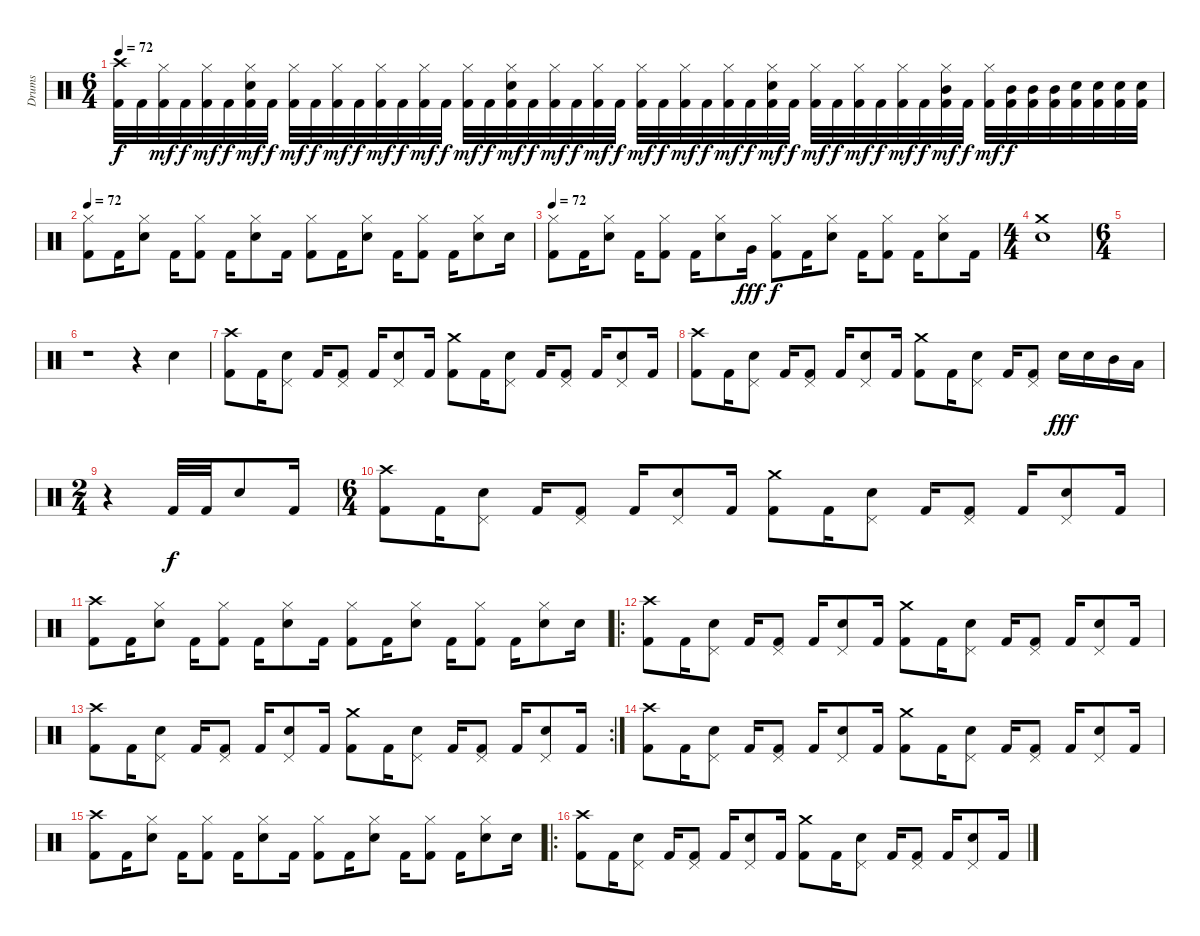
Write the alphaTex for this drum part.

\track ("Drums" "Drums") {instrument percussion}
\staff {score}
\articulation defaults
\ts (6 4)
\tempo 72
\clef neutral
\ks c
("Crash high (hit)" "Kick (hit) 2").32{dy f} "Kick (hit) 2".32 ("Hi-Hat (closed)" "Kick (hit) 2").32{dy mf} "Kick (hit) 2".32{dy f} ("Hi-Hat (closed)" "Kick (hit) 2").32{dy mf} "Kick (hit) 2".32{dy f} ("Hi-Hat (closed)" "Electric Snare (hit)" "Kick (hit) 2").32{dy mf} "Kick (hit) 2".32{dy f} ("Hi-Hat (closed)" "Kick (hit) 2").32{dy mf} "Kick (hit) 2".32{dy f} ("Hi-Hat (closed)" "Kick (hit) 2").32{dy mf} "Kick (hit) 2".32{dy f} ("Hi-Hat (closed)" "Kick (hit) 2").32{dy mf} "Kick (hit) 2".32{dy f} ("Hi-Hat (closed)" "Kick (hit) 2").32{dy mf} "Kick (hit) 2".32{dy f} ("Hi-Hat (closed)" "Kick (hit) 2").32{dy mf} "Kick (hit) 2".32{dy f} ("Hi-Hat (closed)" "Electric Snare (hit)" "Kick (hit) 2").32{dy mf} "Kick (hit) 2".32{dy f} ("Hi-Hat (closed)" "Kick (hit) 2").32{dy mf} "Kick (hit) 2".32{dy f} ("Hi-Hat (closed)" "Kick (hit) 2").32{dy mf} "Kick (hit) 2".32{dy f} ("Hi-Hat (closed)" "Kick (hit) 2").32{dy mf} "Kick (hit) 2".32{dy f} ("Hi-Hat (closed)" "Kick (hit) 2").32{dy mf} "Kick (hit) 2".32{dy f} ("Hi-Hat (closed)" "Kick (hit) 2").32{dy mf} "Kick (hit) 2".32{dy f} ("Hi-Hat (closed)" "Electric Snare (hit)" "Kick (hit) 2").32{dy mf} "Kick (hit) 2".32{dy f} ("Hi-Hat (closed)" "Kick (hit) 2").32{dy mf} "Kick (hit) 2".32{dy f} ("Hi-Hat (closed)" "Kick (hit) 2").32{dy mf} "Kick (hit) 2".32{dy f} ("Hi-Hat (closed)" "Kick (hit) 2").32{dy mf} "Kick (hit) 2".32{dy f} ("Hi-Hat (closed)" "Mid Tom (hit)" "Kick (hit) 2").32{dy mf} "Kick (hit) 2".32{dy f} ("Hi-Hat (closed)" "Kick (hit) 2").32{dy mf} ("Mid Tom (hit)" "Kick (hit) 2").32{dy f} ("Mid Tom (hit)" "Kick (hit) 2").32 ("Mid Tom (hit)" "Kick (hit) 2").32 ("Electric Snare (hit)" "Kick (hit) 2").32 ("Electric Snare (hit)" "Kick (hit) 2").32 ("Electric Snare (hit)" "Kick (hit) 2").32 ("Electric Snare (hit)" "Kick (hit) 2").32 |
\tempo 72
("Hi-Hat (closed)" "Kick (hit) 2").8 "Kick (hit) 2".16 ("Hi-Hat (closed)" "Electric Snare (hit)").8 "Kick (hit) 2".16 ("Hi-Hat (closed)" "Kick (hit) 2").8 "Kick (hit) 2".16 ("Hi-Hat (closed)" "Electric Snare (hit)").8 "Kick (hit) 2".16 ("Hi-Hat (closed)" "Kick (hit) 2").8 "Kick (hit) 2".16 ("Hi-Hat (closed)" "Electric Snare (hit)").8 "Kick (hit) 2".16 ("Hi-Hat (closed)" "Kick (hit) 2").8 "Kick (hit) 2".16 ("Hi-Hat (closed)" "Electric Snare (hit)").8 "Electric Snare (hit)".16 |
\tempo 72
("Hi-Hat (closed)" "Kick (hit) 2").8 "Kick (hit) 2".16 ("Hi-Hat (closed)" "Electric Snare (hit)").8 "Kick (hit) 2".16 ("Hi-Hat (closed)" "Kick (hit) 2").8 "Kick (hit) 2".16 ("Hi-Hat (closed)" "Electric Snare (hit)").8 "Very Low Tom (hit)".16{dy fff} ("Hi-Hat (closed)" "Kick (hit) 2").8{dy f} "Kick (hit) 2".16 ("Hi-Hat (closed)" "Electric Snare (hit)").8 "Kick (hit) 2".16 ("Hi-Hat (closed)" "Kick (hit) 2").8 "Kick (hit) 2".16 ("Hi-Hat (closed)" "Electric Snare (hit)").8 "Kick (hit) 2".16 |
\ts (4 4)
("Crash medium (hit)" "Electric Snare (hit)").1 |
\ts (6 4)
|
r.1 r.4 "Electric Snare (hit)".4 |
("Crash high (hit)" "Kick (hit) 2").8 "Kick (hit) 2".16 ("Pedal Hi-Hat (hit)" "Electric Snare (hit)").8 "Kick (hit) 2".16 ("Pedal Hi-Hat (hit)" "Kick (hit) 2").8 "Kick (hit) 2".16 ("Pedal Hi-Hat (hit)" "Electric Snare (hit)").8 "Kick (hit) 2".16 ("Crash medium (hit)" "Kick (hit) 2").8 "Kick (hit) 2".16 ("Pedal Hi-Hat (hit)" "Electric Snare (hit)").8 "Kick (hit) 2".16 ("Pedal Hi-Hat (hit)" "Kick (hit) 2").8 "Kick (hit) 2".16 ("Pedal Hi-Hat (hit)" "Electric Snare (hit)").8 "Kick (hit) 2".16 |
("Crash high (hit)" "Kick (hit) 2").8 "Kick (hit) 2".16 ("Pedal Hi-Hat (hit)" "Electric Snare (hit)").8 "Kick (hit) 2".16 ("Pedal Hi-Hat (hit)" "Kick (hit) 2").8 "Kick (hit) 2".16 ("Pedal Hi-Hat (hit)" "Electric Snare (hit)").8 "Kick (hit) 2".16 ("Crash medium (hit)" "Kick (hit) 2").8 "Kick (hit) 2".16 ("Pedal Hi-Hat (hit)" "Electric Snare (hit)").8 "Kick (hit) 2".16 ("Pedal Hi-Hat (hit)" "Kick (hit) 2").8 "Electric Snare (hit)".16{dy fff} "Electric Snare (hit)".16 "Mid Tom (hit)".16 "Low Tom (hit)".16 |
\ts (2 4)
r.4 "Kick (hit) 2".32{dy f} "Kick (hit) 2".32 "Electric Snare (hit)".8 "Kick (hit) 2".16 |
\ts (6 4)
("Crash high (hit)" "Kick (hit) 2").8 "Kick (hit) 2".16 ("Pedal Hi-Hat (hit)" "Electric Snare (hit)").8 "Kick (hit) 2".16 ("Pedal Hi-Hat (hit)" "Kick (hit) 2").8 "Kick (hit) 2".16 ("Pedal Hi-Hat (hit)" "Electric Snare (hit)").8 "Kick (hit) 2".16 ("Crash medium (hit)" "Kick (hit) 2").8 "Kick (hit) 2".16 ("Pedal Hi-Hat (hit)" "Electric Snare (hit)").8 "Kick (hit) 2".16 ("Pedal Hi-Hat (hit)" "Kick (hit) 2").8 "Kick (hit) 2".16 ("Pedal Hi-Hat (hit)" "Electric Snare (hit)").8 "Kick (hit) 2".16 |
("Crash high (hit)" "Kick (hit) 2").8 "Kick (hit) 2".16 ("Hi-Hat (closed)" "Electric Snare (hit)").8 "Kick (hit) 2".16 ("Hi-Hat (closed)" "Kick (hit) 2").8 "Kick (hit) 2".16 ("Hi-Hat (closed)" "Electric Snare (hit)").8 "Kick (hit) 2".16 ("Hi-Hat (closed)" "Kick (hit) 2").8 "Kick (hit) 2".16 ("Hi-Hat (closed)" "Electric Snare (hit)").8 "Kick (hit) 2".16 ("Hi-Hat (closed)" "Kick (hit) 2").8 "Kick (hit) 2".16 ("Hi-Hat (closed)" "Electric Snare (hit)").8 "Electric Snare (hit)".16 |
\ro
("Crash high (hit)" "Kick (hit) 2").8 "Kick (hit) 2".16 ("Pedal Hi-Hat (hit)" "Electric Snare (hit)").8 "Kick (hit) 2".16 ("Pedal Hi-Hat (hit)" "Kick (hit) 2").8 "Kick (hit) 2".16 ("Pedal Hi-Hat (hit)" "Electric Snare (hit)").8 "Kick (hit) 2".16 ("Crash medium (hit)" "Kick (hit) 2").8 "Kick (hit) 2".16 ("Pedal Hi-Hat (hit)" "Electric Snare (hit)").8 "Kick (hit) 2".16 ("Pedal Hi-Hat (hit)" "Kick (hit) 2").8 "Kick (hit) 2".16 ("Pedal Hi-Hat (hit)" "Electric Snare (hit)").8 "Kick (hit) 2".16 |
\rc 2
("Crash high (hit)" "Kick (hit) 2").8 "Kick (hit) 2".16 ("Pedal Hi-Hat (hit)" "Electric Snare (hit)").8 "Kick (hit) 2".16 ("Pedal Hi-Hat (hit)" "Kick (hit) 2").8 "Kick (hit) 2".16 ("Pedal Hi-Hat (hit)" "Electric Snare (hit)").8 "Kick (hit) 2".16 ("Crash medium (hit)" "Kick (hit) 2").8 "Kick (hit) 2".16 ("Pedal Hi-Hat (hit)" "Electric Snare (hit)").8 "Kick (hit) 2".16 ("Pedal Hi-Hat (hit)" "Kick (hit) 2").8 "Kick (hit) 2".16 ("Pedal Hi-Hat (hit)" "Electric Snare (hit)").8 "Kick (hit) 2".16 |
("Crash high (hit)" "Kick (hit) 2").8 "Kick (hit) 2".16 ("Pedal Hi-Hat (hit)" "Electric Snare (hit)").8 "Kick (hit) 2".16 ("Pedal Hi-Hat (hit)" "Kick (hit) 2").8 "Kick (hit) 2".16 ("Pedal Hi-Hat (hit)" "Electric Snare (hit)").8 "Kick (hit) 2".16 ("Crash medium (hit)" "Kick (hit) 2").8 "Kick (hit) 2".16 ("Pedal Hi-Hat (hit)" "Electric Snare (hit)").8 "Kick (hit) 2".16 ("Pedal Hi-Hat (hit)" "Kick (hit) 2").8 "Kick (hit) 2".16 ("Pedal Hi-Hat (hit)" "Electric Snare (hit)").8 "Kick (hit) 2".16 |
("Crash high (hit)" "Kick (hit) 2").8 "Kick (hit) 2".16 ("Hi-Hat (closed)" "Electric Snare (hit)").8 "Kick (hit) 2".16 ("Hi-Hat (closed)" "Kick (hit) 2").8 "Kick (hit) 2".16 ("Hi-Hat (closed)" "Electric Snare (hit)").8 "Kick (hit) 2".16 ("Hi-Hat (closed)" "Kick (hit) 2").8 "Kick (hit) 2".16 ("Hi-Hat (closed)" "Electric Snare (hit)").8 "Kick (hit) 2".16 ("Hi-Hat (closed)" "Kick (hit) 2").8 "Kick (hit) 2".16 ("Hi-Hat (closed)" "Electric Snare (hit)").8 "Electric Snare (hit)".16 |
\ro
("Crash high (hit)" "Kick (hit) 2").8 "Kick (hit) 2".16 ("Pedal Hi-Hat (hit)" "Electric Snare (hit)").8 "Kick (hit) 2".16 ("Pedal Hi-Hat (hit)" "Kick (hit) 2").8 "Kick (hit) 2".16 ("Pedal Hi-Hat (hit)" "Electric Snare (hit)").8 "Kick (hit) 2".16 ("Crash medium (hit)" "Kick (hit) 2").8 "Kick (hit) 2".16 ("Pedal Hi-Hat (hit)" "Electric Snare (hit)").8 "Kick (hit) 2".16 ("Pedal Hi-Hat (hit)" "Kick (hit) 2").8 "Kick (hit) 2".16 ("Pedal Hi-Hat (hit)" "Electric Snare (hit)").8 "Kick (hit) 2".16
